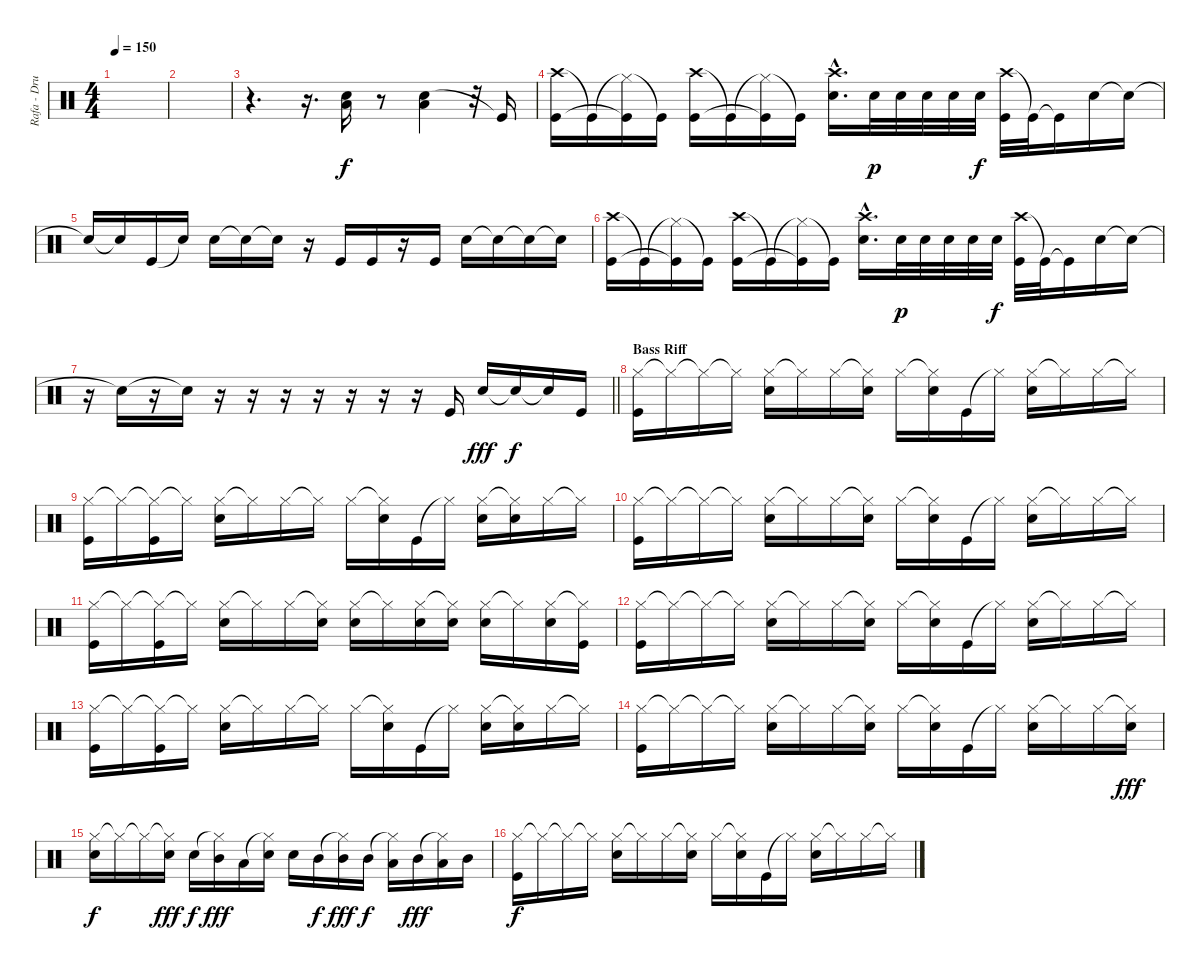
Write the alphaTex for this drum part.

\track ("Rafa - Drums" "Rafa - Dru") {instrument percussion}
\staff {score}
\articulation defaults
\ts (4 4)
\tempo 150
\clef neutral
\ks c
|
|
r.4{d} r.16{d} ("Electric Snare (hit)" "Low Floor Tom (hit)").16 r.8 ("Electric Snare (hit)" "Low Floor Tom (hit)").4 r.32 "Kick (hit)"{t}.16 |
("Crash high (hit)" "Kick (hit)").16 "Kick (hit)"{t}.16 ("Hi-Hat (closed)"{t} "Kick (hit)"{t}).16 "Kick (hit)"{t}.16 ("Crash high (hit)" "Kick (hit)").16 "Kick (hit)"{t}.16 ("Hi-Hat (closed)"{t} "Kick (hit)"{t}).16 "Kick (hit)"{t}.16 ("Crash high (hit)"{hac} "Electric Snare (hit)"{hac}).16{d} "Electric Snare (hit)".32{dy p} "Electric Snare (hit)".32 "Electric Snare (hit)".32 "Electric Snare (hit)".32 "Electric Snare (hit)".32{dy f} ("Crash high (hit)" "Kick (hit)").32 "Kick (hit)"{t}.32 "Kick (hit)"{t}.16 "Electric Snare (hit)".16 "Snare (hit)"{t}.16 |
"Electric Snare (hit)"{t}.16 "Snare (hit)"{t}.16 "Kick (hit)".16 "Electric Snare (hit)"{t}.16 "Electric Snare (hit)".16 "Snare (hit)"{t}.16 "Snare (hit)"{t}.16 r.16 "Kick (hit)".16 "Kick (hit)".16 r.16 "Kick (hit)".16 "Electric Snare (hit)".16 "Snare (hit)"{t}.16 "Snare (hit)"{t}.16 "Snare (hit)"{t}.16 |
("Crash high (hit)" "Kick (hit)").16 "Kick (hit)"{t}.16 ("Hi-Hat (closed)"{t} "Kick (hit)"{t}).16 "Kick (hit)"{t}.16 ("Crash high (hit)" "Kick (hit)").16 "Kick (hit)"{t}.16 ("Hi-Hat (closed)"{t} "Kick (hit)"{t}).16 "Kick (hit)"{t}.16 ("Crash high (hit)"{hac} "Electric Snare (hit)"{hac}).16{d} "Electric Snare (hit)".32{dy p} "Electric Snare (hit)".32 "Electric Snare (hit)".32 "Electric Snare (hit)".32 "Electric Snare (hit)".32{dy f} ("Crash high (hit)" "Kick (hit)").32 "Kick (hit)"{t}.32 "Kick (hit)"{t}.16 "Electric Snare (hit)".16 "Snare (hit)"{t}.16 |
\barLineRight lightlight
r.16 "Snare (hit)"{t}.16 r.16 "Electric Snare (hit)"{t}.16 r.16 r.16 r.16 r.16 r.16 r.16 r.16 "Kick (hit)".16 "Electric Snare (hit)".16{dy fff} "Snare (hit)"{t}.16{dy f} "Electric Snare (hit)"{t}.16 "Kick (hit)".16 |
\section ("" "Bass Riff")
("Hi-Hat (closed)" "Kick (hit)").16 "Hi-Hat (closed)"{t}.16 "Hi-Hat (closed)"{t}.16 "Hi-Hat (closed)"{t}.16 ("Hi-Hat (closed)" "Electric Snare (hit)").16 "Hi-Hat (closed)"{t}.16 "Hi-Hat (closed)".16 ("Hi-Hat (closed)"{t} "Electric Snare (hit)").16 "Hi-Hat (closed)".16 ("Hi-Hat (closed)"{t} "Electric Snare (hit)").16 "Kick (hit)".16 "Hi-Hat (closed)"{t}.16 ("Hi-Hat (closed)" "Electric Snare (hit)").16 "Hi-Hat (closed)"{t}.16 "Hi-Hat (closed)".16 "Hi-Hat (closed)"{t}.16 |
("Hi-Hat (closed)" "Kick (hit)").16 "Hi-Hat (closed)"{t}.16 ("Hi-Hat (closed)"{t} "Kick (hit)").16 "Hi-Hat (closed)"{t}.16 ("Hi-Hat (closed)" "Electric Snare (hit)").16 "Hi-Hat (closed)"{t}.16 "Hi-Hat (closed)".16 "Hi-Hat (closed)"{t}.16 "Hi-Hat (closed)".16 ("Hi-Hat (closed)"{t} "Electric Snare (hit)").16 "Kick (hit)".16 "Hi-Hat (closed)"{t}.16 ("Hi-Hat (closed)" "Electric Snare (hit)").16 ("Hi-Hat (closed)"{t} "Electric Snare (hit)").16 "Hi-Hat (closed)".16 "Hi-Hat (closed)"{t}.16 |
("Hi-Hat (closed)" "Kick (hit)").16 "Hi-Hat (closed)"{t}.16 "Hi-Hat (closed)"{t}.16 "Hi-Hat (closed)"{t}.16 ("Hi-Hat (closed)" "Electric Snare (hit)").16 "Hi-Hat (closed)"{t}.16 "Hi-Hat (closed)".16 ("Hi-Hat (closed)"{t} "Electric Snare (hit)").16 "Hi-Hat (closed)".16 ("Hi-Hat (closed)"{t} "Electric Snare (hit)").16 "Kick (hit)".16 "Hi-Hat (closed)"{t}.16 ("Hi-Hat (closed)" "Electric Snare (hit)").16 "Hi-Hat (closed)"{t}.16 "Hi-Hat (closed)".16 "Hi-Hat (closed)"{t}.16 |
("Hi-Hat (closed)" "Kick (hit)").16 "Hi-Hat (closed)"{t}.16 ("Hi-Hat (closed)"{t} "Kick (hit)").16 "Hi-Hat (closed)"{t}.16 ("Hi-Hat (closed)" "Electric Snare (hit)").16 "Hi-Hat (closed)"{t}.16 "Hi-Hat (closed)".16 ("Hi-Hat (closed)"{t} "Electric Snare (hit)").16 ("Hi-Hat (closed)" "Electric Snare (hit)").16 "Hi-Hat (closed)"{t}.16 ("Hi-Hat (closed)" "Electric Snare (hit)").16 ("Hi-Hat (closed)"{t} "Electric Snare (hit)").16 ("Hi-Hat (closed)" "Electric Snare (hit)").16 "Hi-Hat (closed)"{t}.16 ("Hi-Hat (closed)" "Electric Snare (hit)").16 ("Hi-Hat (closed)"{t} "Kick (hit)").16 |
("Hi-Hat (closed)" "Kick (hit)").16 "Hi-Hat (closed)"{t}.16 "Hi-Hat (closed)"{t}.16 "Hi-Hat (closed)"{t}.16 ("Hi-Hat (closed)" "Electric Snare (hit)").16 "Hi-Hat (closed)"{t}.16 "Hi-Hat (closed)".16 ("Hi-Hat (closed)"{t} "Electric Snare (hit)").16 "Hi-Hat (closed)".16 ("Hi-Hat (closed)"{t} "Electric Snare (hit)").16 "Kick (hit)".16 "Hi-Hat (closed)"{t}.16 ("Hi-Hat (closed)" "Electric Snare (hit)").16 "Hi-Hat (closed)"{t}.16 "Hi-Hat (closed)".16 "Hi-Hat (closed)"{t}.16 |
("Hi-Hat (closed)" "Kick (hit)").16 "Hi-Hat (closed)"{t}.16 ("Hi-Hat (closed)"{t} "Kick (hit)").16 "Hi-Hat (closed)"{t}.16 ("Hi-Hat (closed)" "Electric Snare (hit)").16 "Hi-Hat (closed)"{t}.16 "Hi-Hat (closed)".16 "Hi-Hat (closed)"{t}.16 "Hi-Hat (closed)".16 ("Hi-Hat (closed)"{t} "Electric Snare (hit)").16 "Kick (hit)".16 "Hi-Hat (closed)"{t}.16 ("Hi-Hat (closed)" "Electric Snare (hit)").16 ("Hi-Hat (closed)"{t} "Electric Snare (hit)").16 "Hi-Hat (closed)".16 "Hi-Hat (closed)"{t}.16 |
("Hi-Hat (closed)" "Kick (hit)").16 "Hi-Hat (closed)"{t}.16 "Hi-Hat (closed)"{t}.16 "Hi-Hat (closed)"{t}.16 ("Hi-Hat (closed)" "Electric Snare (hit)").16 "Hi-Hat (closed)"{t}.16 "Hi-Hat (closed)".16 ("Hi-Hat (closed)"{t} "Electric Snare (hit)").16 "Hi-Hat (closed)".16 ("Hi-Hat (closed)"{t} "Electric Snare (hit)").16 "Kick (hit)".16 "Hi-Hat (closed)"{t}.16 ("Hi-Hat (closed)" "Electric Snare (hit)").16 "Hi-Hat (closed)"{t}.16 "Hi-Hat (closed)".16 ("Hi-Hat (closed)"{t} "Electric Snare (hit)").16{dy fff} |
("Hi-Hat (closed)" "Electric Snare (hit)").16{dy f} "Hi-Hat (closed)"{t}.16 "Hi-Hat (closed)"{t}.16 ("Hi-Hat (closed)"{t} "Electric Snare (hit)").16{dy fff} "Electric Snare (hit)".16{dy f} ("Hi-Hat (closed)"{t} "Mid Tom (hit)").16{dy fff} "Low Tom (hit)".16 ("Hi-Hat (closed)"{t} "Electric Snare (hit)").16 "Electric Snare (hit)".16 "Mid Tom (hit)".16{dy f} ("Hi-Hat (closed)"{t} "Mid Tom (hit)").16{dy fff} "Mid Tom (hit)".16{dy f} ("Hi-Hat (closed)"{t} "Low Tom (hit)").16 "Mid Tom (hit)".16{dy fff} ("Hi-Hat (closed)"{t} "Low Tom (hit)").16 "Mid Tom (hit)".16 |
("Hi-Hat (closed)" "Kick (hit)").16{dy f} "Hi-Hat (closed)"{t}.16 "Hi-Hat (closed)"{t}.16 "Hi-Hat (closed)"{t}.16 ("Hi-Hat (closed)" "Electric Snare (hit)").16 "Hi-Hat (closed)"{t}.16 "Hi-Hat (closed)".16 ("Hi-Hat (closed)"{t} "Electric Snare (hit)").16 "Hi-Hat (closed)".16 ("Hi-Hat (closed)"{t} "Electric Snare (hit)").16 "Kick (hit)".16 "Hi-Hat (closed)"{t}.16 ("Hi-Hat (closed)" "Electric Snare (hit)").16 "Hi-Hat (closed)"{t}.16 "Hi-Hat (closed)".16 "Hi-Hat (closed)"{t}.16
